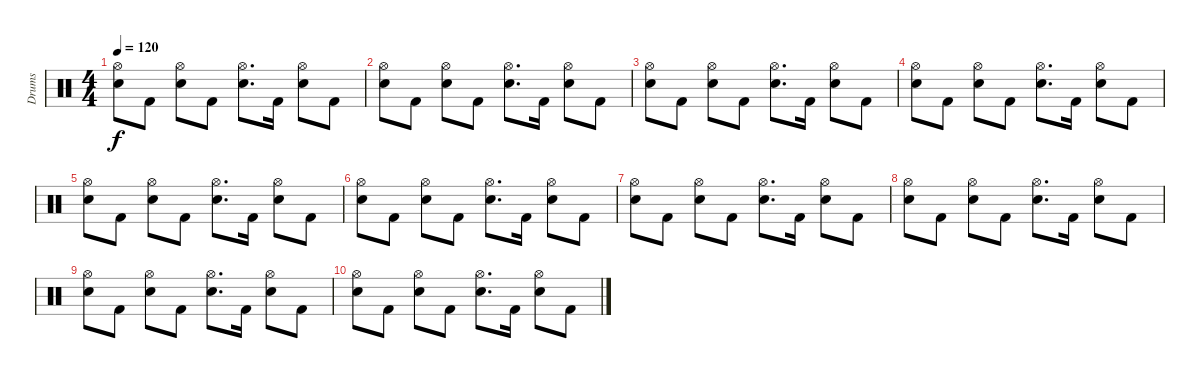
\track ("Drums" "Drums") {instrument percussion}
\staff {score}
\articulation defaults
\ts (4 4)
\tempo 120
\clef neutral
\ks c
("Hi-Hat (open)" "Snare (hit) 2").8{dy f} "Kick (hit) 2".8 ("Hi-Hat (open)" "Snare (hit) 2").8 "Kick (hit) 2".8 ("Hi-Hat (open)" "Snare (hit) 2").8{d} "Kick (hit) 2".16 ("Hi-Hat (open)" "Snare (hit) 2").8 "Kick (hit) 2".8 |
("Hi-Hat (open)" "Snare (hit) 2").8 "Kick (hit) 2".8 ("Hi-Hat (open)" "Snare (hit) 2").8 "Kick (hit) 2".8 ("Hi-Hat (open)" "Snare (hit) 2").8{d} "Kick (hit) 2".16 ("Hi-Hat (open)" "Snare (hit) 2").8 "Kick (hit) 2".8 |
("Hi-Hat (open)" "Snare (hit) 2").8 "Kick (hit) 2".8 ("Hi-Hat (open)" "Snare (hit) 2").8 "Kick (hit) 2".8 ("Hi-Hat (open)" "Snare (hit) 2").8{d} "Kick (hit) 2".16 ("Hi-Hat (open)" "Snare (hit) 2").8 "Kick (hit) 2".8 |
("Hi-Hat (open)" "Snare (hit) 2").8 "Kick (hit) 2".8 ("Hi-Hat (open)" "Snare (hit) 2").8 "Kick (hit) 2".8 ("Hi-Hat (open)" "Snare (hit) 2").8{d} "Kick (hit) 2".16 ("Hi-Hat (open)" "Snare (hit) 2").8 "Kick (hit) 2".8 |
("Hi-Hat (open)" "Snare (hit) 2").8 "Kick (hit) 2".8 ("Hi-Hat (open)" "Snare (hit) 2").8 "Kick (hit) 2".8 ("Hi-Hat (open)" "Snare (hit) 2").8{d} "Kick (hit) 2".16 ("Hi-Hat (open)" "Snare (hit) 2").8 "Kick (hit) 2".8 |
("Hi-Hat (open)" "Snare (hit) 2").8 "Kick (hit) 2".8 ("Hi-Hat (open)" "Snare (hit) 2").8 "Kick (hit) 2".8 ("Hi-Hat (open)" "Snare (hit) 2").8{d} "Kick (hit) 2".16 ("Hi-Hat (open)" "Snare (hit) 2").8 "Kick (hit) 2".8 |
("Hi-Hat (open)" "Snare (hit) 2").8 "Kick (hit) 2".8 ("Hi-Hat (open)" "Snare (hit) 2").8 "Kick (hit) 2".8 ("Hi-Hat (open)" "Snare (hit) 2").8{d} "Kick (hit) 2".16 ("Hi-Hat (open)" "Snare (hit) 2").8 "Kick (hit) 2".8 |
("Hi-Hat (open)" "Snare (hit) 2").8 "Kick (hit) 2".8 ("Hi-Hat (open)" "Snare (hit) 2").8 "Kick (hit) 2".8 ("Hi-Hat (open)" "Snare (hit) 2").8{d} "Kick (hit) 2".16 ("Hi-Hat (open)" "Snare (hit) 2").8 "Kick (hit) 2".8 |
("Hi-Hat (open)" "Snare (hit) 2").8 "Kick (hit) 2".8 ("Hi-Hat (open)" "Snare (hit) 2").8 "Kick (hit) 2".8 ("Hi-Hat (open)" "Snare (hit) 2").8{d} "Kick (hit) 2".16 ("Hi-Hat (open)" "Snare (hit) 2").8 "Kick (hit) 2".8 |
("Hi-Hat (open)" "Snare (hit) 2").8 "Kick (hit) 2".8 ("Hi-Hat (open)" "Snare (hit) 2").8 "Kick (hit) 2".8 ("Hi-Hat (open)" "Snare (hit) 2").8{d} "Kick (hit) 2".16 ("Hi-Hat (open)" "Snare (hit) 2").8 "Kick (hit) 2".8
